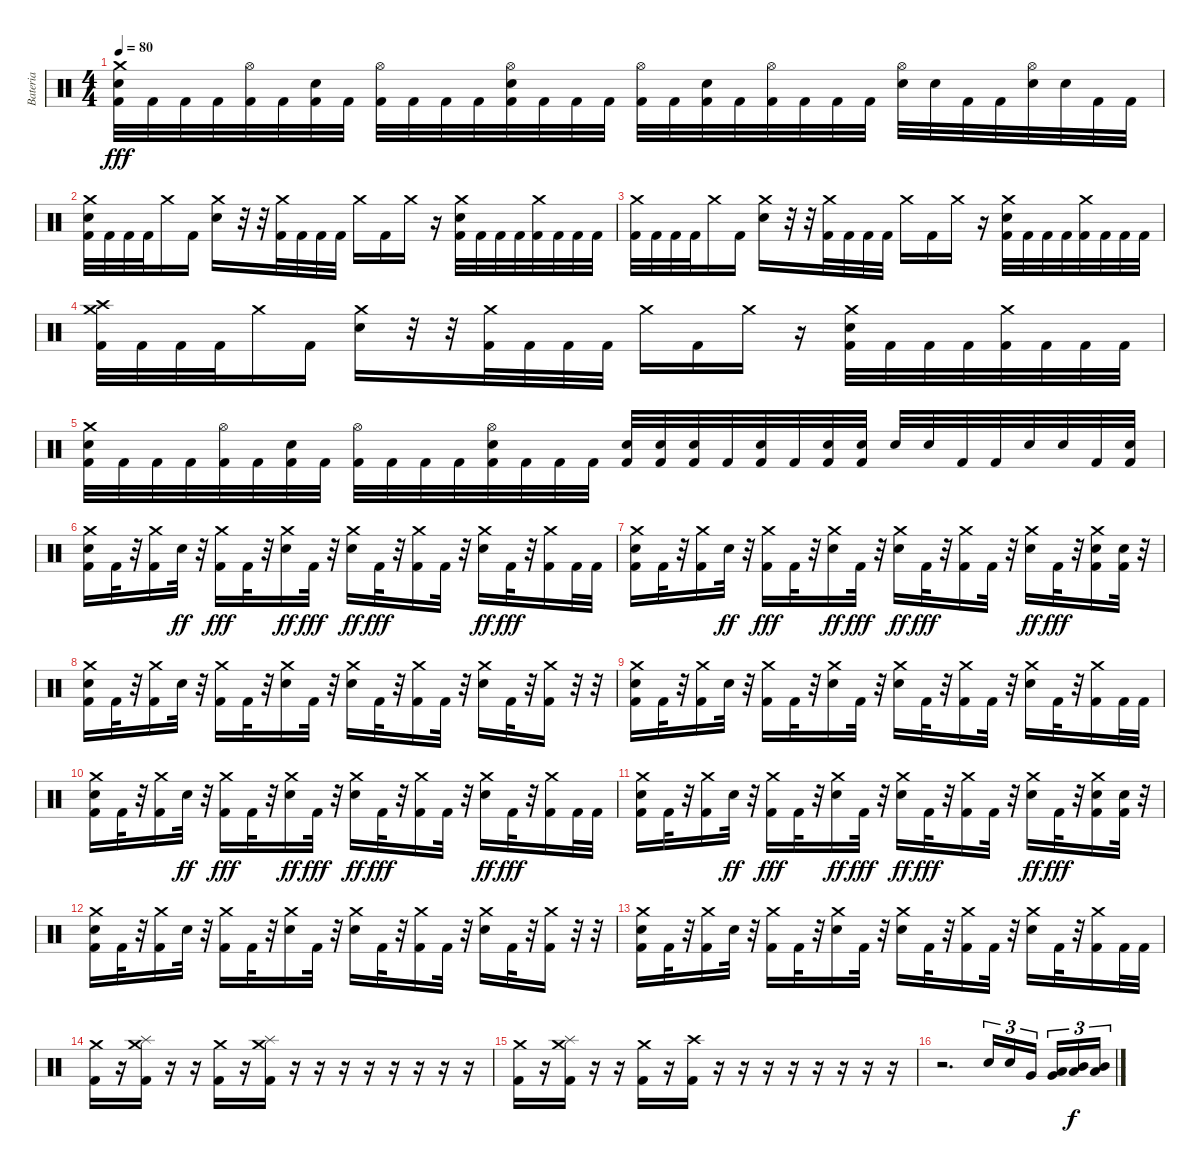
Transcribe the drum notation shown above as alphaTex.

\track ("Bateria" "Bateria") {instrument percussion}
\staff {score}
\articulation defaults
\ts (4 4)
\tempo 80
\clef neutral
\ks c
("Crash medium (hit)" "Electric Snare (hit)" "Kick (hit) 2").32{dy fff} "Kick (hit) 2".32 "Kick (hit) 2".32 "Kick (hit) 2".32 ("Hi-Hat (open)" "Kick (hit) 2").32 "Kick (hit) 2".32 ("Electric Snare (hit)" "Kick (hit) 2").32 "Kick (hit) 2".32 ("Hi-Hat (open)" "Kick (hit) 2").32 "Kick (hit) 2".32 "Kick (hit) 2".32 "Kick (hit) 2".32 ("Hi-Hat (open)" "Electric Snare (hit)" "Kick (hit) 2").32 "Kick (hit) 2".32 "Kick (hit) 2".32 "Kick (hit) 2".32 ("Hi-Hat (open)" "Kick (hit) 2").32 "Kick (hit) 2".32 ("Electric Snare (hit)" "Kick (hit) 2").32 "Kick (hit) 2".32 ("Hi-Hat (open)" "Kick (hit) 2").32 "Kick (hit) 2".32 "Kick (hit) 2".32 "Kick (hit) 2".32 ("Hi-Hat (open)" "Electric Snare (hit)").32 "Electric Snare (hit)".32 "Kick (hit) 2".32 "Kick (hit) 2".32 ("Hi-Hat (open)" "Electric Snare (hit)").32 "Electric Snare (hit)".32 "Kick (hit) 2".32 "Kick (hit) 2".32 |
("Crash medium (hit)" "Electric Snare (hit)" "Kick (hit) 2").32 "Kick (hit) 2".32 "Kick (hit) 2".32 "Kick (hit) 2".32 "Crash medium (hit)".16 "Kick (hit) 2".16 ("Crash medium (hit)" "Electric Snare (hit)").16 r.32 r.32 ("Crash medium (hit)" "Kick (hit) 2").32 "Kick (hit) 2".32 "Kick (hit) 2".32 "Kick (hit) 2".32 "Crash medium (hit)".16 "Kick (hit) 2".16 "Crash medium (hit)".16 r.16 ("Crash medium (hit)" "Electric Snare (hit)" "Kick (hit) 2").32 "Kick (hit) 2".32 "Kick (hit) 2".32 "Kick (hit) 2".32 ("Crash medium (hit)" "Kick (hit) 2").32 "Kick (hit) 2".32 "Kick (hit) 2".32 "Kick (hit) 2".32 |
("Crash medium (hit)" "Kick (hit) 2").32 "Kick (hit) 2".32 "Kick (hit) 2".32 "Kick (hit) 2".32 "Crash medium (hit)".16 "Kick (hit) 2".16 ("Crash medium (hit)" "Electric Snare (hit)").16 r.32 r.32 ("Crash medium (hit)" "Kick (hit) 2").32 "Kick (hit) 2".32 "Kick (hit) 2".32 "Kick (hit) 2".32 "Crash medium (hit)".16 "Kick (hit) 2".16 "Crash medium (hit)".16 r.16 ("Crash medium (hit)" "Electric Snare (hit)" "Kick (hit) 2").32 "Kick (hit) 2".32 "Kick (hit) 2".32 "Kick (hit) 2".32 ("Crash medium (hit)" "Kick (hit) 2").32 "Kick (hit) 2".32 "Kick (hit) 2".32 "Kick (hit) 2".32 |
("Crash medium (hit)" "Crash high (hit)" "Kick (hit) 2").32 "Kick (hit) 2".32 "Kick (hit) 2".32 "Kick (hit) 2".32 "Crash medium (hit)".16 "Kick (hit) 2".16 ("Crash medium (hit)" "Electric Snare (hit)").16 r.32 r.32 ("Crash medium (hit)" "Kick (hit) 2").32 "Kick (hit) 2".32 "Kick (hit) 2".32 "Kick (hit) 2".32 "Crash medium (hit)".16 "Kick (hit) 2".16 "Crash medium (hit)".16 r.16 ("Crash medium (hit)" "Electric Snare (hit)" "Kick (hit) 2").32 "Kick (hit) 2".32 "Kick (hit) 2".32 "Kick (hit) 2".32 ("Crash medium (hit)" "Kick (hit) 2").32 "Kick (hit) 2".32 "Kick (hit) 2".32 "Kick (hit) 2".32 |
("Crash medium (hit)" "Electric Snare (hit)" "Kick (hit) 2").32 "Kick (hit) 2".32 "Kick (hit) 2".32 "Kick (hit) 2".32 ("Hi-Hat (open)" "Kick (hit) 2").32 "Kick (hit) 2".32 ("Electric Snare (hit)" "Kick (hit) 2").32 "Kick (hit) 2".32 ("Hi-Hat (open)" "Kick (hit) 2").32 "Kick (hit) 2".32 "Kick (hit) 2".32 "Kick (hit) 2".32 ("Hi-Hat (open)" "Electric Snare (hit)" "Kick (hit) 2").32 "Kick (hit) 2".32 "Kick (hit) 2".32 "Kick (hit) 2".32 ("Electric Snare (hit)" "Kick (hit) 2").32 ("Electric Snare (hit)" "Kick (hit) 2").32 ("Electric Snare (hit)" "Kick (hit) 2").32 "Kick (hit) 2".32 ("Electric Snare (hit)" "Kick (hit) 2").32 "Kick (hit) 2".32 ("Electric Snare (hit)" "Kick (hit) 2").32 ("Electric Snare (hit)" "Kick (hit) 2").32 "Electric Snare (hit)".32 "Electric Snare (hit)".32 "Kick (hit) 2".32 "Kick (hit) 2".32 "Electric Snare (hit)".32 "Electric Snare (hit)".32 "Kick (hit) 2".32 ("Electric Snare (hit)" "Kick (hit) 2").32 |
("Crash medium (hit)" "Electric Snare (hit)" "Kick (hit) 2").16 "Kick (hit) 2".32 r.32 ("Crash medium (hit)" "Kick (hit) 2").16 "Electric Snare (hit)".32{dy ff} r.32 ("Crash medium (hit)" "Kick (hit) 2").16{dy fff} "Kick (hit) 2".32 r.32 ("Crash medium (hit)" "Electric Snare (hit)").16{dy ff} "Kick (hit) 2".32{dy fff} r.32 ("Crash medium (hit)" "Electric Snare (hit)").16{dy ff} "Kick (hit) 2".32{dy fff} r.32 ("Crash medium (hit)" "Kick (hit) 2").16 "Kick (hit) 2".32 r.32 ("Crash medium (hit)" "Electric Snare (hit)").16{dy ff} "Kick (hit) 2".32{dy fff} r.32 ("Crash medium (hit)" "Kick (hit) 2").16 "Kick (hit) 2".32 "Kick (hit) 2".32 |
("Crash medium (hit)" "Electric Snare (hit)" "Kick (hit) 2").16 "Kick (hit) 2".32 r.32 ("Crash medium (hit)" "Kick (hit) 2").16 "Electric Snare (hit)".32{dy ff} r.32 ("Crash medium (hit)" "Kick (hit) 2").16{dy fff} "Kick (hit) 2".32 r.32 ("Crash medium (hit)" "Electric Snare (hit)").16{dy ff} "Kick (hit) 2".32{dy fff} r.32 ("Crash medium (hit)" "Electric Snare (hit)").16{dy ff} "Kick (hit) 2".32{dy fff} r.32 ("Crash medium (hit)" "Kick (hit) 2").16 "Kick (hit) 2".32 r.32 ("Crash medium (hit)" "Electric Snare (hit)").16{dy ff} "Kick (hit) 2".32{dy fff} r.32 ("Crash medium (hit)" "Electric Snare (hit)" "Kick (hit) 2").16 ("Electric Snare (hit)" "Kick (hit) 2").32 r.32 |
("Crash medium (hit)" "Electric Snare (hit)" "Kick (hit) 2").16 "Kick (hit) 2".32 r.32 ("Crash medium (hit)" "Kick (hit) 2").16 "Electric Snare (hit)".32 r.32 ("Crash medium (hit)" "Kick (hit) 2").16 "Kick (hit) 2".32 r.32 ("Crash medium (hit)" "Electric Snare (hit)").16 "Kick (hit) 2".32 r.32 ("Crash medium (hit)" "Electric Snare (hit)").16 "Kick (hit) 2".32 r.32 ("Crash medium (hit)" "Kick (hit) 2").16 "Kick (hit) 2".32 r.32 ("Crash medium (hit)" "Electric Snare (hit)").16 "Kick (hit) 2".32 r.32 ("Crash medium (hit)" "Kick (hit) 2").16 r.32 r.32 |
("Crash medium (hit)" "Electric Snare (hit)" "Kick (hit) 2").16 "Kick (hit) 2".32 r.32 ("Crash medium (hit)" "Kick (hit) 2").16 "Electric Snare (hit)".32 r.32 ("Crash medium (hit)" "Kick (hit) 2").16 "Kick (hit) 2".32 r.32 ("Crash medium (hit)" "Electric Snare (hit)").16 "Kick (hit) 2".32 r.32 ("Crash medium (hit)" "Electric Snare (hit)").16 "Kick (hit) 2".32 r.32 ("Crash medium (hit)" "Kick (hit) 2").16 "Kick (hit) 2".32 r.32 ("Crash medium (hit)" "Electric Snare (hit)").16 "Kick (hit) 2".32 r.32 ("Crash medium (hit)" "Kick (hit) 2").16 "Kick (hit) 2".32 "Kick (hit) 2".32 |
("Crash medium (hit)" "Electric Snare (hit)" "Kick (hit) 2").16 "Kick (hit) 2".32 r.32 ("Crash medium (hit)" "Kick (hit) 2").16 "Electric Snare (hit)".32{dy ff} r.32 ("Crash medium (hit)" "Kick (hit) 2").16{dy fff} "Kick (hit) 2".32 r.32 ("Crash medium (hit)" "Electric Snare (hit)").16{dy ff} "Kick (hit) 2".32{dy fff} r.32 ("Crash medium (hit)" "Electric Snare (hit)").16{dy ff} "Kick (hit) 2".32{dy fff} r.32 ("Crash medium (hit)" "Kick (hit) 2").16 "Kick (hit) 2".32 r.32 ("Crash medium (hit)" "Electric Snare (hit)").16{dy ff} "Kick (hit) 2".32{dy fff} r.32 ("Crash medium (hit)" "Kick (hit) 2").16 "Kick (hit) 2".32 "Kick (hit) 2".32 |
("Crash medium (hit)" "Electric Snare (hit)" "Kick (hit) 2").16 "Kick (hit) 2".32 r.32 ("Crash medium (hit)" "Kick (hit) 2").16 "Electric Snare (hit)".32{dy ff} r.32 ("Crash medium (hit)" "Kick (hit) 2").16{dy fff} "Kick (hit) 2".32 r.32 ("Crash medium (hit)" "Electric Snare (hit)").16{dy ff} "Kick (hit) 2".32{dy fff} r.32 ("Crash medium (hit)" "Electric Snare (hit)").16{dy ff} "Kick (hit) 2".32{dy fff} r.32 ("Crash medium (hit)" "Kick (hit) 2").16 "Kick (hit) 2".32 r.32 ("Crash medium (hit)" "Electric Snare (hit)").16{dy ff} "Kick (hit) 2".32{dy fff} r.32 ("Crash medium (hit)" "Electric Snare (hit)" "Kick (hit) 2").16 ("Electric Snare (hit)" "Kick (hit) 2").32 r.32 |
("Crash medium (hit)" "Electric Snare (hit)" "Kick (hit) 2").16 "Kick (hit) 2".32 r.32 ("Crash medium (hit)" "Kick (hit) 2").16 "Electric Snare (hit)".32 r.32 ("Crash medium (hit)" "Kick (hit) 2").16 "Kick (hit) 2".32 r.32 ("Crash medium (hit)" "Electric Snare (hit)").16 "Kick (hit) 2".32 r.32 ("Crash medium (hit)" "Electric Snare (hit)").16 "Kick (hit) 2".32 r.32 ("Crash medium (hit)" "Kick (hit) 2").16 "Kick (hit) 2".32 r.32 ("Crash medium (hit)" "Electric Snare (hit)").16 "Kick (hit) 2".32 r.32 ("Crash medium (hit)" "Kick (hit) 2").16 r.32 r.32 |
("Crash medium (hit)" "Electric Snare (hit)" "Kick (hit) 2").16 "Kick (hit) 2".32 r.32 ("Crash medium (hit)" "Kick (hit) 2").16 "Electric Snare (hit)".32 r.32 ("Crash medium (hit)" "Kick (hit) 2").16 "Kick (hit) 2".32 r.32 ("Crash medium (hit)" "Electric Snare (hit)").16 "Kick (hit) 2".32 r.32 ("Crash medium (hit)" "Electric Snare (hit)").16 "Kick (hit) 2".32 r.32 ("Crash medium (hit)" "Kick (hit) 2").16 "Kick (hit) 2".32 r.32 ("Crash medium (hit)" "Electric Snare (hit)").16 "Kick (hit) 2".32 r.32 ("Crash medium (hit)" "Kick (hit) 2").16 "Kick (hit) 2".32 "Kick (hit) 2".32 |
("Crash medium (hit)" "Kick (hit) 2").16 r.16 ("Splash (hit)" "Crash medium (hit)" "Kick (hit) 2").16 r.16 r.16 ("Crash medium (hit)" "Kick (hit) 2").16 r.16 ("Crash medium (hit)" "Splash (hit)" "Kick (hit) 2").16 r.16 r.16 r.16 r.16 r.16 r.16 r.16 r.16 |
("Crash medium (hit)" "Kick (hit) 2").16 r.16 ("Splash (hit)" "Crash medium (hit)" "Kick (hit) 2").16 r.16 r.16 ("Crash medium (hit)" "Kick (hit) 2").16 r.16 ("Crash high (hit)" "Kick (hit) 2").16 r.16 r.16 r.16 r.16 r.16 r.16 r.16 r.16 |
r.2{d} "Electric Snare (hit)".16{tu (3 2)} "Electric Snare (hit)".16{tu (3 2)} "Very Low Tom (hit)".16{tu (3 2) beam splitsecondary} ("Low Tom (hit)" "Very Low Tom (hit)").16{tu (3 2)} ("Mid Tom (hit)" "Low Tom (hit)").16{tu (3 2) dy f} ("Low Tom (hit)" "Mid Tom (hit)").16{tu (3 2)}
